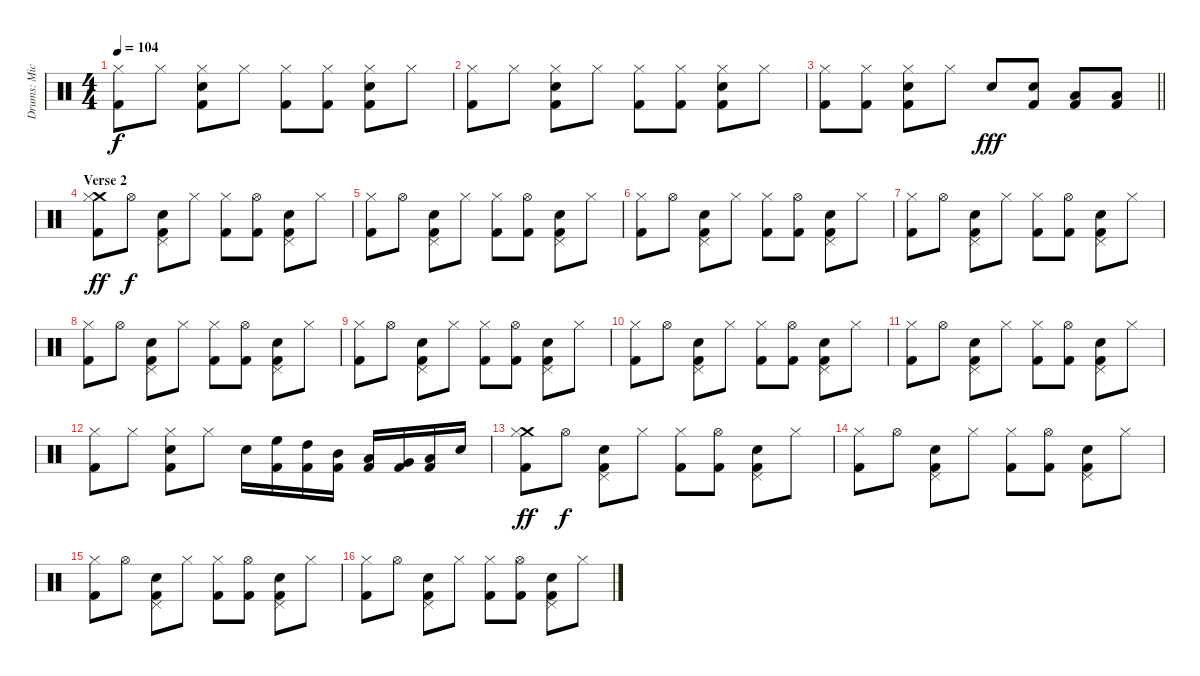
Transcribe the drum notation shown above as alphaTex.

\track ("Drums: Mick Fleetwood" "Drums: Mic") {instrument percussion}
\staff {score}
\articulation defaults
\ts (4 4)
\tempo 104
\clef neutral
\ks c
("Hi-Hat (closed)" "Kick (hit) 2").8{dy f} "Hi-Hat (closed)".8 ("Hi-Hat (closed)" "Snare (hit) 2" "Kick (hit) 2").8 "Hi-Hat (closed)".8 ("Hi-Hat (closed)" "Kick (hit) 2").8 ("Hi-Hat (closed)" "Kick (hit) 2").8 ("Hi-Hat (closed)" "Snare (hit) 2" "Kick (hit) 2").8 "Hi-Hat (closed)".8 |
("Hi-Hat (closed)" "Kick (hit) 2").8 "Hi-Hat (closed)".8 ("Hi-Hat (closed)" "Snare (hit) 2" "Kick (hit) 2").8 "Hi-Hat (closed)".8 ("Hi-Hat (closed)" "Kick (hit) 2").8 ("Hi-Hat (closed)" "Kick (hit) 2").8 ("Hi-Hat (closed)" "Snare (hit) 2" "Kick (hit) 2").8 "Hi-Hat (closed)".8 |
\barLineRight lightlight
("Hi-Hat (closed)" "Kick (hit) 2").8 ("Hi-Hat (closed)" "Kick (hit) 2").8 ("Hi-Hat (closed)" "Snare (hit) 2" "Kick (hit) 2").8 "Hi-Hat (closed)".8 "Snare (hit) 2".8{dy fff} ("Snare (hit) 2" "Kick (hit) 2").8 ("Low Tom (hit)" "Kick (hit) 2").8 ("Low Floor Tom (hit)" "Kick (hit) 2").8 |
\section ("" "Verse 2")
("Crash medium (hit)" "Hi-Hat (closed)" "Kick (hit) 2").8{dy ff} "Hi-Hat (open)".8{dy f} ("Pedal Hi-Hat (hit)" "Snare (hit) 2" "Kick (hit) 2").8 "Hi-Hat (closed)".8 ("Hi-Hat (closed)" "Kick (hit) 2").8 ("Hi-Hat (open)" "Kick (hit) 2").8 ("Pedal Hi-Hat (hit)" "Snare (hit) 2" "Kick (hit) 2").8 "Hi-Hat (closed)".8 |
("Hi-Hat (closed)" "Kick (hit) 2").8 "Hi-Hat (open)".8 ("Pedal Hi-Hat (hit)" "Snare (hit) 2" "Kick (hit) 2").8 "Hi-Hat (closed)".8 ("Hi-Hat (closed)" "Kick (hit) 2").8 ("Hi-Hat (open)" "Kick (hit) 2").8 ("Pedal Hi-Hat (hit)" "Snare (hit) 2" "Kick (hit) 2").8 "Hi-Hat (closed)".8 |
("Hi-Hat (closed)" "Kick (hit) 2").8 "Hi-Hat (open)".8 ("Pedal Hi-Hat (hit)" "Snare (hit) 2" "Kick (hit) 2").8 "Hi-Hat (closed)".8 ("Hi-Hat (closed)" "Kick (hit) 2").8 ("Hi-Hat (open)" "Kick (hit) 2").8 ("Pedal Hi-Hat (hit)" "Snare (hit) 2" "Kick (hit) 2").8 "Hi-Hat (closed)".8 |
("Hi-Hat (closed)" "Kick (hit) 2").8 "Hi-Hat (open)".8 ("Pedal Hi-Hat (hit)" "Snare (hit) 2" "Kick (hit) 2").8 "Hi-Hat (closed)".8 ("Hi-Hat (closed)" "Kick (hit) 2").8 ("Hi-Hat (open)" "Kick (hit) 2").8 ("Pedal Hi-Hat (hit)" "Snare (hit) 2" "Kick (hit) 2").8 "Hi-Hat (closed)".8 |
("Hi-Hat (closed)" "Kick (hit) 2").8 "Hi-Hat (open)".8 ("Pedal Hi-Hat (hit)" "Snare (hit) 2" "Kick (hit) 2").8 "Hi-Hat (closed)".8 ("Hi-Hat (closed)" "Kick (hit) 2").8 ("Hi-Hat (open)" "Kick (hit) 2").8 ("Pedal Hi-Hat (hit)" "Snare (hit) 2" "Kick (hit) 2").8 "Hi-Hat (closed)".8 |
("Hi-Hat (closed)" "Kick (hit) 2").8 "Hi-Hat (open)".8 ("Pedal Hi-Hat (hit)" "Snare (hit) 2" "Kick (hit) 2").8 "Hi-Hat (closed)".8 ("Hi-Hat (closed)" "Kick (hit) 2").8 ("Hi-Hat (open)" "Kick (hit) 2").8 ("Pedal Hi-Hat (hit)" "Snare (hit) 2" "Kick (hit) 2").8 "Hi-Hat (closed)".8 |
("Hi-Hat (closed)" "Kick (hit) 2").8 "Hi-Hat (open)".8 ("Pedal Hi-Hat (hit)" "Snare (hit) 2" "Kick (hit) 2").8 "Hi-Hat (closed)".8 ("Hi-Hat (closed)" "Kick (hit) 2").8 ("Hi-Hat (open)" "Kick (hit) 2").8 ("Pedal Hi-Hat (hit)" "Snare (hit) 2" "Kick (hit) 2").8 "Hi-Hat (closed)".8 |
("Hi-Hat (closed)" "Kick (hit) 2").8 "Hi-Hat (open)".8 ("Pedal Hi-Hat (hit)" "Snare (hit) 2" "Kick (hit) 2").8 "Hi-Hat (closed)".8 ("Hi-Hat (closed)" "Kick (hit) 2").8 ("Hi-Hat (open)" "Kick (hit) 2").8 ("Pedal Hi-Hat (hit)" "Snare (hit) 2" "Kick (hit) 2").8 "Hi-Hat (closed)".8 |
("Hi-Hat (closed)" "Kick (hit) 2").8 "Hi-Hat (closed)".8 ("Hi-Hat (closed)" "Snare (hit) 2" "Kick (hit) 2").8 "Hi-Hat (closed)".8 "Snare (hit) 2".16 ("High Floor Tom (hit)" "Kick (hit) 2").16 ("High Tom (hit)" "Kick (hit) 2").16 ("Mid Tom (hit)" "Kick (hit) 2").16 ("Low Tom (hit)" "Kick (hit) 2").16 ("Very Low Tom (hit)" "Kick (hit) 2").16 ("Low Floor Tom (hit)" "Kick (hit) 2").16 "Snare (hit) 2".16 |
("Crash medium (hit)" "Hi-Hat (closed)" "Kick (hit) 2").8{dy ff} "Hi-Hat (open)".8{dy f} ("Pedal Hi-Hat (hit)" "Snare (hit) 2" "Kick (hit) 2").8 "Hi-Hat (closed)".8 ("Hi-Hat (closed)" "Kick (hit) 2").8 ("Hi-Hat (open)" "Kick (hit) 2").8 ("Pedal Hi-Hat (hit)" "Snare (hit) 2" "Kick (hit) 2").8 "Hi-Hat (closed)".8 |
("Hi-Hat (closed)" "Kick (hit) 2").8 "Hi-Hat (open)".8 ("Pedal Hi-Hat (hit)" "Snare (hit) 2" "Kick (hit) 2").8 "Hi-Hat (closed)".8 ("Hi-Hat (closed)" "Kick (hit) 2").8 ("Hi-Hat (open)" "Kick (hit) 2").8 ("Pedal Hi-Hat (hit)" "Snare (hit) 2" "Kick (hit) 2").8 "Hi-Hat (closed)".8 |
("Hi-Hat (closed)" "Kick (hit) 2").8 "Hi-Hat (open)".8 ("Pedal Hi-Hat (hit)" "Snare (hit) 2" "Kick (hit) 2").8 "Hi-Hat (closed)".8 ("Hi-Hat (closed)" "Kick (hit) 2").8 ("Hi-Hat (open)" "Kick (hit) 2").8 ("Pedal Hi-Hat (hit)" "Snare (hit) 2" "Kick (hit) 2").8 "Hi-Hat (closed)".8 |
("Hi-Hat (closed)" "Kick (hit) 2").8 "Hi-Hat (open)".8 ("Pedal Hi-Hat (hit)" "Snare (hit) 2" "Kick (hit) 2").8 "Hi-Hat (closed)".8 ("Hi-Hat (closed)" "Kick (hit) 2").8 ("Hi-Hat (open)" "Kick (hit) 2").8 ("Pedal Hi-Hat (hit)" "Snare (hit) 2" "Kick (hit) 2").8 "Hi-Hat (closed)".8
